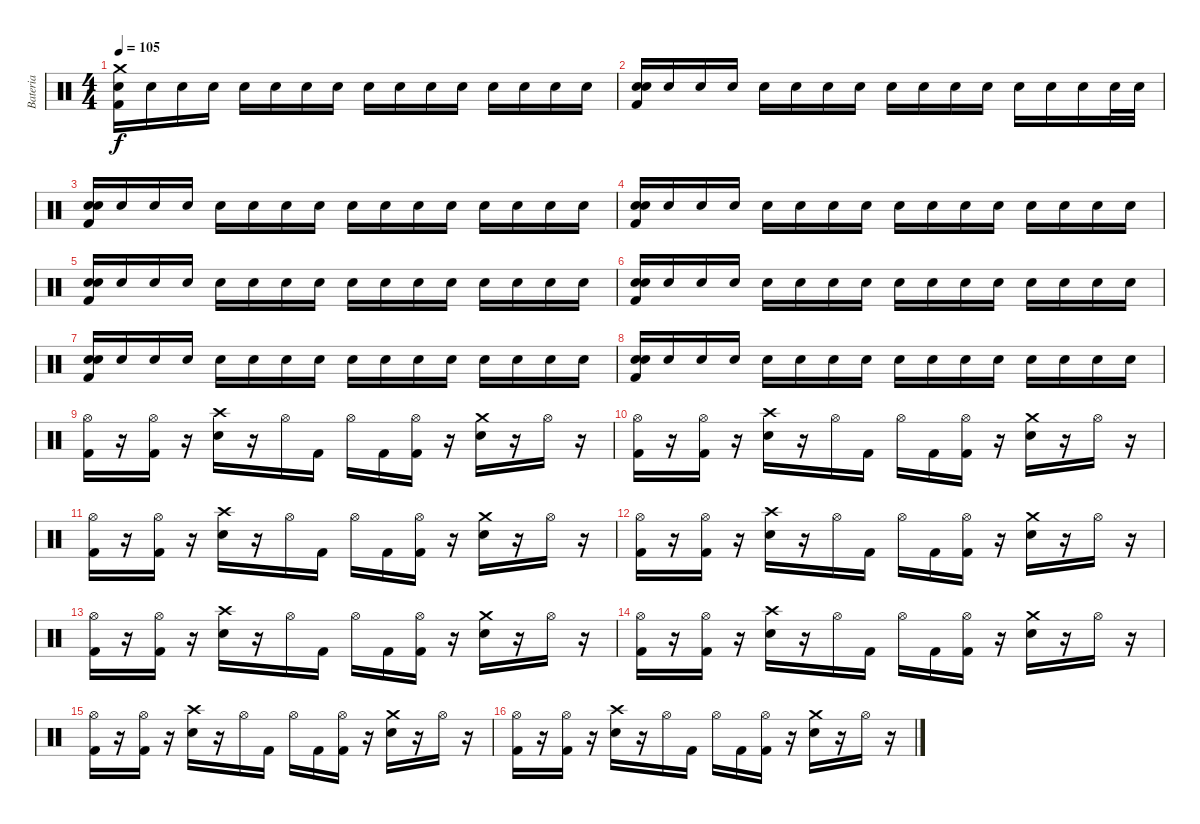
\track ("Bateria" "Bateria") {instrument percussion}
\staff {score}
\articulation defaults
\ts (4 4)
\tempo 105
\clef neutral
\ks c
("Snare (hit) 2" "Kick (hit) 2" "Crash medium (hit)").16{dy f volume 10} "Snare (hit) 2".16 "Snare (hit) 2".16 "Snare (hit) 2".16 "Snare (hit) 2".16 "Snare (hit) 2".16 "Snare (hit) 2".16 "Snare (hit) 2".16 "Snare (hit) 2".16 "Snare (hit) 2".16 "Snare (hit) 2".16 "Snare (hit) 2".16 "Snare (hit) 2".16 "Snare (hit) 2".16 "Snare (hit) 2".16 "Snare (hit) 2".16 |
("Snare (hit) 2" "Kick (hit) 2" "Snare (hit) 2").16 "Snare (hit) 2".16 "Snare (hit) 2".16 "Snare (hit) 2".16 "Snare (hit) 2".16 "Snare (hit) 2".16 "Snare (hit) 2".16 "Snare (hit) 2".16 "Snare (hit) 2".16 "Snare (hit) 2".16 "Snare (hit) 2".16 "Snare (hit) 2".16 "Snare (hit) 2".16 "Snare (hit) 2".16 "Snare (hit) 2".16 "Snare (hit) 2".32 "Snare (hit) 2".32 |
("Snare (hit) 2" "Kick (hit) 2" "Snare (hit) 2").16 "Snare (hit) 2".16 "Snare (hit) 2".16 "Snare (hit) 2".16 "Snare (hit) 2".16 "Snare (hit) 2".16 "Snare (hit) 2".16 "Snare (hit) 2".16 "Snare (hit) 2".16 "Snare (hit) 2".16 "Snare (hit) 2".16 "Snare (hit) 2".16 "Snare (hit) 2".16 "Snare (hit) 2".16 "Snare (hit) 2".16 "Snare (hit) 2".16 |
("Snare (hit) 2" "Kick (hit) 2" "Snare (hit) 2").16 "Snare (hit) 2".16 "Snare (hit) 2".16 "Snare (hit) 2".16 "Snare (hit) 2".16 "Snare (hit) 2".16 "Snare (hit) 2".16 "Snare (hit) 2".16 "Snare (hit) 2".16 "Snare (hit) 2".16 "Snare (hit) 2".16 "Snare (hit) 2".16 "Snare (hit) 2".16 "Snare (hit) 2".16 "Snare (hit) 2".16 "Snare (hit) 2".16 |
("Snare (hit) 2" "Kick (hit) 2" "Snare (hit) 2").16 "Snare (hit) 2".16 "Snare (hit) 2".16 "Snare (hit) 2".16 "Snare (hit) 2".16 "Snare (hit) 2".16 "Snare (hit) 2".16 "Snare (hit) 2".16 "Snare (hit) 2".16 "Snare (hit) 2".16 "Snare (hit) 2".16 "Snare (hit) 2".16 "Snare (hit) 2".16 "Snare (hit) 2".16 "Snare (hit) 2".16 "Snare (hit) 2".16 |
("Snare (hit) 2" "Kick (hit) 2" "Snare (hit) 2").16 "Snare (hit) 2".16 "Snare (hit) 2".16 "Snare (hit) 2".16 "Snare (hit) 2".16 "Snare (hit) 2".16 "Snare (hit) 2".16 "Snare (hit) 2".16 "Snare (hit) 2".16 "Snare (hit) 2".16 "Snare (hit) 2".16 "Snare (hit) 2".16 "Snare (hit) 2".16 "Snare (hit) 2".16 "Snare (hit) 2".16 "Snare (hit) 2".16 |
("Snare (hit) 2" "Kick (hit) 2" "Snare (hit) 2").16 "Snare (hit) 2".16 "Snare (hit) 2".16 "Snare (hit) 2".16 "Snare (hit) 2".16 "Snare (hit) 2".16 "Snare (hit) 2".16 "Snare (hit) 2".16 "Snare (hit) 2".16 "Snare (hit) 2".16 "Snare (hit) 2".16 "Snare (hit) 2".16 "Snare (hit) 2".16 "Snare (hit) 2".16 "Snare (hit) 2".16 "Snare (hit) 2".16 |
("Snare (hit) 2" "Kick (hit) 2" "Snare (hit) 2").16{volume 14} "Snare (hit) 2".16 "Snare (hit) 2".16 "Snare (hit) 2".16 "Snare (hit) 2".16 "Snare (hit) 2".16 "Snare (hit) 2".16 "Snare (hit) 2".16 "Snare (hit) 2".16 "Snare (hit) 2".16 "Snare (hit) 2".16 "Snare (hit) 2".16 "Snare (hit) 2".16 "Snare (hit) 2".16 "Snare (hit) 2".16 "Snare (hit) 2".16 |
("Kick (hit) 2" "Hi-Hat (open)").16 r.16 ("Kick (hit) 2" "Hi-Hat (open)").16 r.16 ("Snare (hit) 2" "Crash high (hit)").16 r.16 "Hi-Hat (open)".16 "Kick (hit) 2".16 "Hi-Hat (open)".16 "Kick (hit) 2".16 ("Kick (hit) 2" "Hi-Hat (open)").16 r.16 ("Snare (hit) 2" "Crash medium (hit)").16 r.16 "Hi-Hat (open)".16 r.16 |
("Kick (hit) 2" "Hi-Hat (open)").16 r.16 ("Kick (hit) 2" "Hi-Hat (open)").16 r.16 ("Snare (hit) 2" "Crash high (hit)").16 r.16 "Hi-Hat (open)".16 "Kick (hit) 2".16 "Hi-Hat (open)".16 "Kick (hit) 2".16 ("Kick (hit) 2" "Hi-Hat (open)").16 r.16 ("Snare (hit) 2" "Crash medium (hit)").16 r.16 "Hi-Hat (open)".16 r.16 |
("Kick (hit) 2" "Hi-Hat (open)").16 r.16 ("Kick (hit) 2" "Hi-Hat (open)").16 r.16 ("Snare (hit) 2" "Crash high (hit)").16 r.16 "Hi-Hat (open)".16 "Kick (hit) 2".16 "Hi-Hat (open)".16 "Kick (hit) 2".16 ("Kick (hit) 2" "Hi-Hat (open)").16 r.16 ("Snare (hit) 2" "Crash medium (hit)").16 r.16 "Hi-Hat (open)".16 r.16 |
("Kick (hit) 2" "Hi-Hat (open)").16 r.16 ("Kick (hit) 2" "Hi-Hat (open)").16 r.16 ("Snare (hit) 2" "Crash high (hit)").16 r.16 "Hi-Hat (open)".16 "Kick (hit) 2".16 "Hi-Hat (open)".16 "Kick (hit) 2".16 ("Kick (hit) 2" "Hi-Hat (open)").16 r.16 ("Snare (hit) 2" "Crash medium (hit)").16 r.16 "Hi-Hat (open)".16 r.16 |
("Kick (hit) 2" "Hi-Hat (open)").16 r.16 ("Kick (hit) 2" "Hi-Hat (open)").16 r.16 ("Snare (hit) 2" "Crash high (hit)").16 r.16 "Hi-Hat (open)".16 "Kick (hit) 2".16 "Hi-Hat (open)".16 "Kick (hit) 2".16 ("Kick (hit) 2" "Hi-Hat (open)").16 r.16 ("Snare (hit) 2" "Crash medium (hit)").16 r.16 "Hi-Hat (open)".16 r.16 |
("Kick (hit) 2" "Hi-Hat (open)").16 r.16 ("Kick (hit) 2" "Hi-Hat (open)").16 r.16 ("Snare (hit) 2" "Crash high (hit)").16 r.16 "Hi-Hat (open)".16 "Kick (hit) 2".16 "Hi-Hat (open)".16 "Kick (hit) 2".16 ("Kick (hit) 2" "Hi-Hat (open)").16 r.16 ("Snare (hit) 2" "Crash medium (hit)").16 r.16 "Hi-Hat (open)".16 r.16 |
("Kick (hit) 2" "Hi-Hat (open)").16 r.16 ("Kick (hit) 2" "Hi-Hat (open)").16 r.16 ("Snare (hit) 2" "Crash high (hit)").16 r.16 "Hi-Hat (open)".16 "Kick (hit) 2".16 "Hi-Hat (open)".16 "Kick (hit) 2".16 ("Kick (hit) 2" "Hi-Hat (open)").16 r.16 ("Snare (hit) 2" "Crash medium (hit)").16 r.16 "Hi-Hat (open)".16 r.16 |
("Kick (hit) 2" "Hi-Hat (open)").16 r.16 ("Kick (hit) 2" "Hi-Hat (open)").16 r.16 ("Snare (hit) 2" "Crash high (hit)").16 r.16 "Hi-Hat (open)".16 "Kick (hit) 2".16 "Hi-Hat (open)".16 "Kick (hit) 2".16 ("Kick (hit) 2" "Hi-Hat (open)").16 r.16 ("Snare (hit) 2" "Crash medium (hit)").16 r.16 "Hi-Hat (open)".16 r.16
